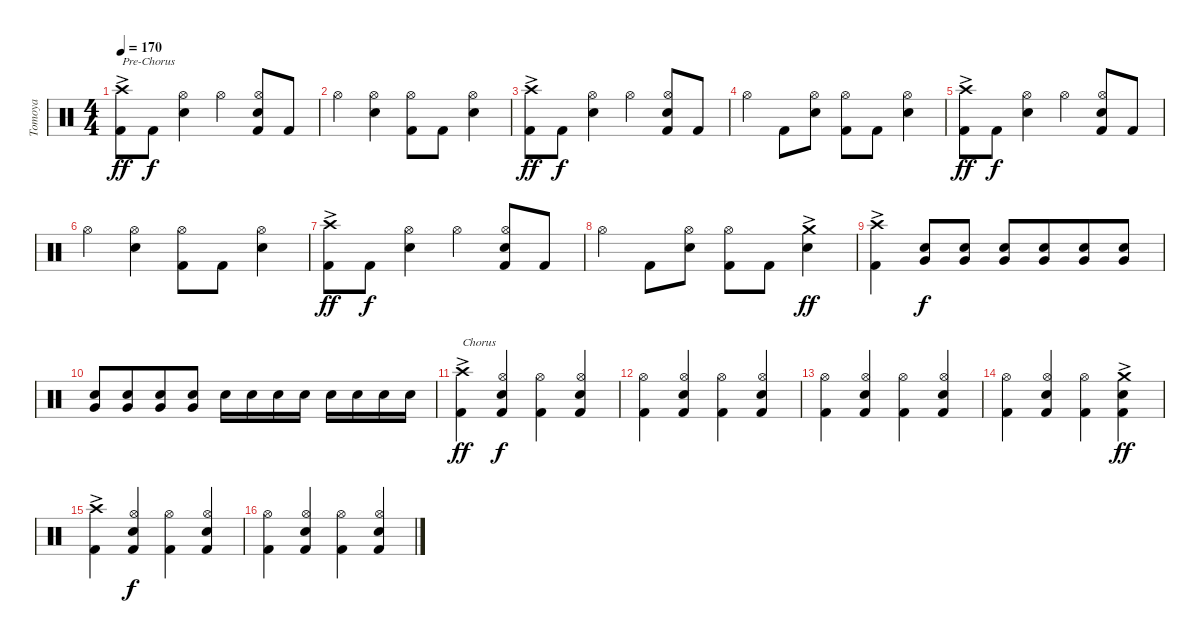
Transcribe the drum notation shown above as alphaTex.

\track ("Tomoya" "Tomoya") {instrument percussion}
\staff {score}
\articulation defaults
\ts (4 4)
\tempo 170
\clef neutral
\ks c
("Crash high (hit)"{ac} "Kick (hit) 2"{ac}).8{txt "Pre-Chorus" dy ff} "Kick (hit) 2".8{dy f} ("Hi-Hat (open)" "Snare (hit) 2").4 "Hi-Hat (open)".4 ("Hi-Hat (open)" "Snare (hit) 2" "Kick (hit) 2").8 "Kick (hit) 2".8 |
"Hi-Hat (open)".4 ("Hi-Hat (open)" "Snare (hit) 2").4 ("Hi-Hat (open)" "Kick (hit) 2").8 "Kick (hit) 2".8 ("Hi-Hat (open)" "Snare (hit) 2").4 |
("Crash high (hit)"{ac} "Kick (hit) 2"{ac}).8{dy ff} "Kick (hit) 2".8{dy f} ("Hi-Hat (open)" "Snare (hit) 2").4 "Hi-Hat (open)".4 ("Hi-Hat (open)" "Snare (hit) 2" "Kick (hit) 2").8 "Kick (hit) 2".8 |
"Hi-Hat (open)".4 "Kick (hit) 2".8 ("Hi-Hat (open)" "Snare (hit) 2").8 ("Hi-Hat (open)" "Kick (hit) 2").8 "Kick (hit) 2".8 ("Hi-Hat (open)" "Snare (hit) 2").4 |
("Crash high (hit)"{ac} "Kick (hit) 2"{ac}).8{dy ff} "Kick (hit) 2".8{dy f} ("Hi-Hat (open)" "Snare (hit) 2").4 "Hi-Hat (open)".4 ("Hi-Hat (open)" "Snare (hit) 2" "Kick (hit) 2").8 "Kick (hit) 2".8 |
"Hi-Hat (open)".4 ("Hi-Hat (open)" "Snare (hit) 2").4 ("Hi-Hat (open)" "Kick (hit) 2").8 "Kick (hit) 2".8 ("Hi-Hat (open)" "Snare (hit) 2").4 |
("Crash high (hit)"{ac} "Kick (hit) 2"{ac}).8{dy ff} "Kick (hit) 2".8{dy f} ("Hi-Hat (open)" "Snare (hit) 2").4 "Hi-Hat (open)".4 ("Hi-Hat (open)" "Snare (hit) 2" "Kick (hit) 2").8 "Kick (hit) 2".8 |
"Hi-Hat (open)".4 "Kick (hit) 2".8 ("Hi-Hat (open)" "Snare (hit) 2").8 ("Hi-Hat (open)" "Kick (hit) 2").8 "Kick (hit) 2".8 ("Crash medium (hit)"{ac} "Snare (hit) 2").4{dy ff} |
("Crash high (hit)"{ac} "Kick (hit) 2"{ac}).4 ("Snare (hit) 2" "Very Low Tom (hit)").8{dy f} ("Snare (hit) 2" "Very Low Tom (hit)").8 ("Snare (hit) 2" "Very Low Tom (hit)").8 ("Snare (hit) 2" "Very Low Tom (hit)").8{beam merge} ("Snare (hit) 2" "Very Low Tom (hit)").8 ("Snare (hit) 2" "Very Low Tom (hit)").8 |
("Snare (hit) 2" "Very Low Tom (hit)").8 ("Snare (hit) 2" "Very Low Tom (hit)").8{beam merge} ("Snare (hit) 2" "Very Low Tom (hit)").8 ("Snare (hit) 2" "Very Low Tom (hit)").8 "Snare (hit) 2".16 "Snare (hit) 2".16 "Snare (hit) 2".16 "Snare (hit) 2".16 "Snare (hit) 2".16 "Snare (hit) 2".16 "Snare (hit) 2".16 "Snare (hit) 2".16 |
("Crash high (hit)"{ac} "Kick (hit) 2").4{txt "Chorus" dy ff} ("Hi-Hat (open)" "Snare (hit) 2" "Kick (hit) 2").4{dy f} ("Hi-Hat (open)" "Kick (hit) 2").4 ("Hi-Hat (open)" "Snare (hit) 2" "Kick (hit) 2").4 |
("Hi-Hat (open)" "Kick (hit) 2").4 ("Hi-Hat (open)" "Snare (hit) 2" "Kick (hit) 2").4 ("Hi-Hat (open)" "Kick (hit) 2").4 ("Hi-Hat (open)" "Snare (hit) 2" "Kick (hit) 2").4 |
("Hi-Hat (open)" "Kick (hit) 2").4 ("Hi-Hat (open)" "Snare (hit) 2" "Kick (hit) 2").4 ("Hi-Hat (open)" "Kick (hit) 2").4 ("Hi-Hat (open)" "Snare (hit) 2" "Kick (hit) 2").4 |
("Hi-Hat (open)" "Kick (hit) 2").4 ("Hi-Hat (open)" "Snare (hit) 2" "Kick (hit) 2").4 ("Hi-Hat (open)" "Kick (hit) 2").4 ("Crash medium (hit)"{ac} "Snare (hit) 2" "Kick (hit) 2").4{dy ff} |
("Crash high (hit)"{ac} "Kick (hit) 2").4 ("Hi-Hat (open)" "Snare (hit) 2" "Kick (hit) 2").4{dy f} ("Hi-Hat (open)" "Kick (hit) 2").4 ("Hi-Hat (open)" "Snare (hit) 2" "Kick (hit) 2").4 |
("Hi-Hat (open)" "Kick (hit) 2").4 ("Hi-Hat (open)" "Snare (hit) 2" "Kick (hit) 2").4 ("Hi-Hat (open)" "Kick (hit) 2").4 ("Hi-Hat (open)" "Snare (hit) 2" "Kick (hit) 2").4
